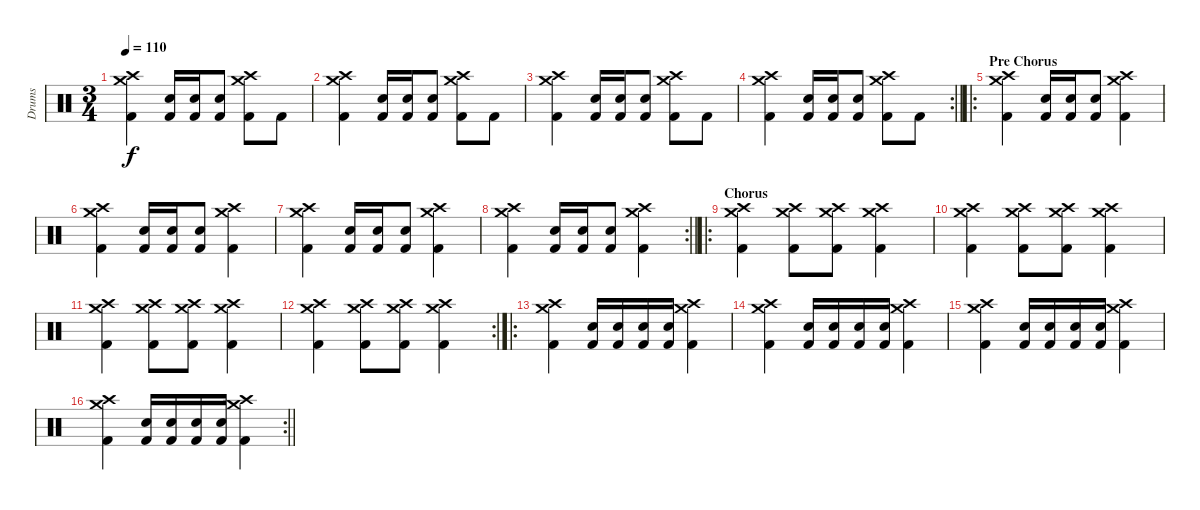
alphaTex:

\track ("Drums" "Drums") {instrument percussion}
\staff {score}
\articulation defaults
\ts (3 4)
\tempo 110
\clef neutral
\ks c
("Crash high (hit)" "Crash medium (hit)" "Kick (hit) 2").4{dy f} ("Electric Snare (hit)" "Kick (hit) 2").16 ("Electric Snare (hit)" "Kick (hit) 2").16 ("Electric Snare (hit)" "Kick (hit) 2").8 ("Crash high (hit)" "Crash medium (hit)" "Kick (hit) 2").8 "Kick (hit) 2".8 |
("Crash high (hit)" "Crash medium (hit)" "Kick (hit) 2").4 ("Electric Snare (hit)" "Kick (hit) 2").16 ("Electric Snare (hit)" "Kick (hit) 2").16 ("Electric Snare (hit)" "Kick (hit) 2").8 ("Crash high (hit)" "Crash medium (hit)" "Kick (hit) 2").8 "Kick (hit) 2".8 |
("Crash high (hit)" "Crash medium (hit)" "Kick (hit) 2").4 ("Electric Snare (hit)" "Kick (hit) 2").16 ("Electric Snare (hit)" "Kick (hit) 2").16 ("Electric Snare (hit)" "Kick (hit) 2").8 ("Crash high (hit)" "Crash medium (hit)" "Kick (hit) 2").8 "Kick (hit) 2".8 |
\rc 2
\barLineRight lightlight
("Crash high (hit)" "Crash medium (hit)" "Kick (hit) 2").4 ("Electric Snare (hit)" "Kick (hit) 2").16 ("Electric Snare (hit)" "Kick (hit) 2").16 ("Electric Snare (hit)" "Kick (hit) 2").8 ("Crash high (hit)" "Crash medium (hit)" "Kick (hit) 2").8 "Kick (hit) 2".8 |
\ro
\section ("" "Pre Chorus")
("Crash high (hit)" "Crash medium (hit)" "Kick (hit) 2").4 ("Electric Snare (hit)" "Kick (hit) 2").16 ("Electric Snare (hit)" "Kick (hit) 2").16 ("Electric Snare (hit)" "Kick (hit) 2").8 ("Crash high (hit)" "Crash medium (hit)" "Kick (hit) 2").4 |
("Crash high (hit)" "Crash medium (hit)" "Kick (hit) 2").4 ("Electric Snare (hit)" "Kick (hit) 2").16 ("Electric Snare (hit)" "Kick (hit) 2").16 ("Electric Snare (hit)" "Kick (hit) 2").8 ("Crash high (hit)" "Crash medium (hit)" "Kick (hit) 2").4 |
("Crash high (hit)" "Crash medium (hit)" "Kick (hit) 2").4 ("Electric Snare (hit)" "Kick (hit) 2").16 ("Electric Snare (hit)" "Kick (hit) 2").16 ("Electric Snare (hit)" "Kick (hit) 2").8 ("Crash high (hit)" "Crash medium (hit)" "Kick (hit) 2").4 |
\rc 2
\barLineRight lightlight
("Crash high (hit)" "Crash medium (hit)" "Kick (hit) 2").4 ("Electric Snare (hit)" "Kick (hit) 2").16 ("Electric Snare (hit)" "Kick (hit) 2").16 ("Electric Snare (hit)" "Kick (hit) 2").8 ("Crash high (hit)" "Crash medium (hit)" "Kick (hit) 2").4 |
\ro
\section ("" "Chorus")
("Crash high (hit)" "Crash medium (hit)" "Kick (hit) 2").4 ("Crash high (hit)" "Crash medium (hit)" "Kick (hit) 2").8 ("Crash high (hit)" "Crash medium (hit)" "Kick (hit) 2").8 ("Crash high (hit)" "Crash medium (hit)" "Kick (hit) 2").4 |
("Crash high (hit)" "Crash medium (hit)" "Kick (hit) 2").4 ("Crash high (hit)" "Crash medium (hit)" "Kick (hit) 2").8 ("Crash high (hit)" "Crash medium (hit)" "Kick (hit) 2").8 ("Crash high (hit)" "Crash medium (hit)" "Kick (hit) 2").4 |
("Crash high (hit)" "Crash medium (hit)" "Kick (hit) 2").4 ("Crash high (hit)" "Crash medium (hit)" "Kick (hit) 2").8 ("Crash high (hit)" "Crash medium (hit)" "Kick (hit) 2").8 ("Crash high (hit)" "Crash medium (hit)" "Kick (hit) 2").4 |
\rc 2
("Crash high (hit)" "Crash medium (hit)" "Kick (hit) 2").4 ("Crash high (hit)" "Crash medium (hit)" "Kick (hit) 2").8 ("Crash high (hit)" "Crash medium (hit)" "Kick (hit) 2").8 ("Crash high (hit)" "Crash medium (hit)" "Kick (hit) 2").4 |
\ro
("Crash high (hit)" "Crash medium (hit)" "Kick (hit) 2").4 ("Electric Snare (hit)" "Kick (hit) 2").16 ("Electric Snare (hit)" "Kick (hit) 2").16 ("Electric Snare (hit)" "Kick (hit) 2").16 ("Electric Snare (hit)" "Kick (hit) 2").16 ("Crash high (hit)" "Crash medium (hit)" "Kick (hit) 2").4 |
("Crash high (hit)" "Crash medium (hit)" "Kick (hit) 2").4 ("Electric Snare (hit)" "Kick (hit) 2").16 ("Electric Snare (hit)" "Kick (hit) 2").16 ("Electric Snare (hit)" "Kick (hit) 2").16 ("Electric Snare (hit)" "Kick (hit) 2").16 ("Crash high (hit)" "Crash medium (hit)" "Kick (hit) 2").4 |
("Crash high (hit)" "Crash medium (hit)" "Kick (hit) 2").4 ("Electric Snare (hit)" "Kick (hit) 2").16 ("Electric Snare (hit)" "Kick (hit) 2").16 ("Electric Snare (hit)" "Kick (hit) 2").16 ("Electric Snare (hit)" "Kick (hit) 2").16 ("Crash high (hit)" "Crash medium (hit)" "Kick (hit) 2").4 |
\rc 2
\barLineRight lightlight
("Crash high (hit)" "Crash medium (hit)" "Kick (hit) 2").4 ("Electric Snare (hit)" "Kick (hit) 2").16 ("Electric Snare (hit)" "Kick (hit) 2").16 ("Electric Snare (hit)" "Kick (hit) 2").16 ("Electric Snare (hit)" "Kick (hit) 2").16 ("Crash high (hit)" "Crash medium (hit)" "Kick (hit) 2").4
